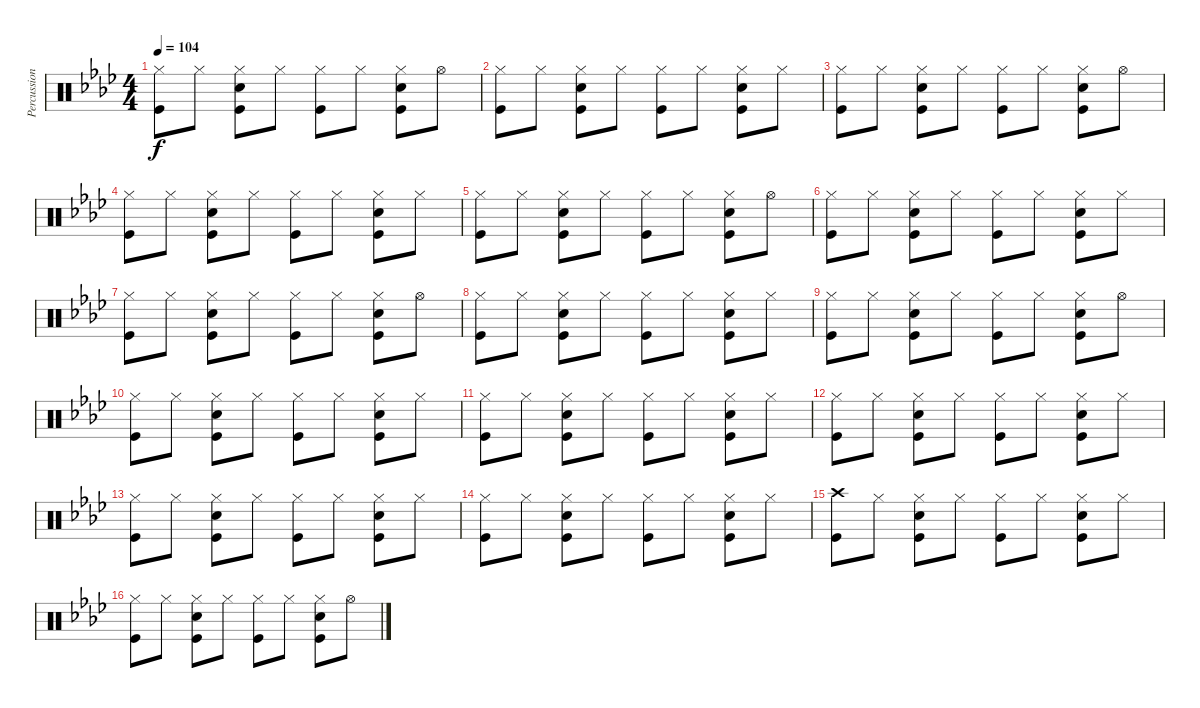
\track ("Percussion" "Percussion") {instrument percussion}
\staff {score}
\articulation defaults
\ts (4 4)
\tempo 104
\clef neutral
\ks ab
("Hi-Hat (closed)" "Kick (hit)").8{dy f} "Hi-Hat (closed)".8 ("Hi-Hat (closed)" "Snare (hit) 2" "Kick (hit)").8 "Hi-Hat (closed)".8 ("Hi-Hat (closed)" "Kick (hit)").8 "Hi-Hat (closed)".8 ("Hi-Hat (closed)" "Snare (hit) 2" "Kick (hit)").8 "Hi-Hat (open)".8 |
("Hi-Hat (closed)" "Kick (hit)").8 "Hi-Hat (closed)".8 ("Hi-Hat (closed)" "Snare (hit) 2" "Kick (hit)").8 "Hi-Hat (closed)".8 ("Hi-Hat (closed)" "Kick (hit)").8 "Hi-Hat (closed)".8 ("Hi-Hat (closed)" "Snare (hit) 2" "Kick (hit)").8 "Hi-Hat (closed)".8 |
("Hi-Hat (closed)" "Kick (hit)").8 "Hi-Hat (closed)".8 ("Hi-Hat (closed)" "Snare (hit) 2" "Kick (hit)").8 "Hi-Hat (closed)".8 ("Hi-Hat (closed)" "Kick (hit)").8 "Hi-Hat (closed)".8 ("Hi-Hat (closed)" "Snare (hit) 2" "Kick (hit)").8 "Hi-Hat (open)".8 |
("Hi-Hat (closed)" "Kick (hit)").8 "Hi-Hat (closed)".8 ("Hi-Hat (closed)" "Snare (hit) 2" "Kick (hit)").8 "Hi-Hat (closed)".8 ("Hi-Hat (closed)" "Kick (hit)").8 "Hi-Hat (closed)".8 ("Hi-Hat (closed)" "Snare (hit) 2" "Kick (hit)").8 "Hi-Hat (closed)".8 |
("Hi-Hat (closed)" "Kick (hit)").8 "Hi-Hat (closed)".8 ("Hi-Hat (closed)" "Snare (hit) 2" "Kick (hit)").8 "Hi-Hat (closed)".8 ("Hi-Hat (closed)" "Kick (hit)").8 "Hi-Hat (closed)".8 ("Hi-Hat (closed)" "Snare (hit) 2" "Kick (hit)").8 "Hi-Hat (open)".8 |
("Hi-Hat (closed)" "Kick (hit)").8 "Hi-Hat (closed)".8 ("Hi-Hat (closed)" "Snare (hit) 2" "Kick (hit)").8 "Hi-Hat (closed)".8 ("Hi-Hat (closed)" "Kick (hit)").8 "Hi-Hat (closed)".8 ("Hi-Hat (closed)" "Snare (hit) 2" "Kick (hit)").8 "Hi-Hat (closed)".8 |
("Hi-Hat (closed)" "Kick (hit)").8 "Hi-Hat (closed)".8 ("Hi-Hat (closed)" "Snare (hit) 2" "Kick (hit)").8 "Hi-Hat (closed)".8 ("Hi-Hat (closed)" "Kick (hit)").8 "Hi-Hat (closed)".8 ("Hi-Hat (closed)" "Snare (hit) 2" "Kick (hit)").8 "Hi-Hat (open)".8 |
("Hi-Hat (closed)" "Kick (hit)").8 "Hi-Hat (closed)".8 ("Hi-Hat (closed)" "Snare (hit) 2" "Kick (hit)").8 "Hi-Hat (closed)".8 ("Hi-Hat (closed)" "Kick (hit)").8 "Hi-Hat (closed)".8 ("Hi-Hat (closed)" "Snare (hit) 2" "Kick (hit)").8 "Hi-Hat (closed)".8 |
("Hi-Hat (closed)" "Kick (hit)").8 "Hi-Hat (closed)".8 ("Hi-Hat (closed)" "Snare (hit) 2" "Kick (hit)").8 "Hi-Hat (closed)".8 ("Hi-Hat (closed)" "Kick (hit)").8 "Hi-Hat (closed)".8 ("Hi-Hat (closed)" "Snare (hit) 2" "Kick (hit)").8 "Hi-Hat (open)".8 |
("Hi-Hat (closed)" "Kick (hit)").8 "Hi-Hat (closed)".8 ("Hi-Hat (closed)" "Snare (hit) 2" "Kick (hit)").8 "Hi-Hat (closed)".8 ("Hi-Hat (closed)" "Kick (hit)").8 "Hi-Hat (closed)".8 ("Hi-Hat (closed)" "Snare (hit) 2" "Kick (hit)").8 "Hi-Hat (closed)".8 |
("Hi-Hat (closed)" "Kick (hit)").8 "Hi-Hat (closed)".8 ("Hi-Hat (closed)" "Snare (hit) 2" "Kick (hit)").8 "Hi-Hat (closed)".8 ("Hi-Hat (closed)" "Kick (hit)").8 "Hi-Hat (closed)".8 ("Hi-Hat (closed)" "Snare (hit) 2" "Kick (hit)").8 "Hi-Hat (closed)".8 |
("Hi-Hat (closed)" "Kick (hit)").8 "Hi-Hat (closed)".8 ("Hi-Hat (closed)" "Snare (hit) 2" "Kick (hit)").8 "Hi-Hat (closed)".8 ("Hi-Hat (closed)" "Kick (hit)").8 "Hi-Hat (closed)".8 ("Hi-Hat (closed)" "Snare (hit) 2" "Kick (hit)").8 "Hi-Hat (closed)".8 |
("Hi-Hat (closed)" "Kick (hit)").8 "Hi-Hat (closed)".8 ("Hi-Hat (closed)" "Snare (hit) 2" "Kick (hit)").8 "Hi-Hat (closed)".8 ("Hi-Hat (closed)" "Kick (hit)").8 "Hi-Hat (closed)".8 ("Hi-Hat (closed)" "Snare (hit) 2" "Kick (hit)").8 "Hi-Hat (closed)".8 |
("Hi-Hat (closed)" "Kick (hit)").8 "Hi-Hat (closed)".8 ("Hi-Hat (closed)" "Snare (hit) 2" "Kick (hit)").8 "Hi-Hat (closed)".8 ("Hi-Hat (closed)" "Kick (hit)").8 "Hi-Hat (closed)".8 ("Hi-Hat (closed)" "Snare (hit) 2" "Kick (hit)").8 "Hi-Hat (closed)".8 |
("Crash high (hit)" "Kick (hit)").8 "Hi-Hat (closed)".8 ("Hi-Hat (closed)" "Snare (hit) 2" "Kick (hit)").8 "Hi-Hat (closed)".8 ("Hi-Hat (closed)" "Kick (hit)").8 "Hi-Hat (closed)".8 ("Hi-Hat (closed)" "Snare (hit) 2" "Kick (hit)").8 "Hi-Hat (closed)".8 |
("Hi-Hat (closed)" "Kick (hit)").8 "Hi-Hat (closed)".8 ("Hi-Hat (closed)" "Snare (hit) 2" "Kick (hit)").8 "Hi-Hat (closed)".8 ("Hi-Hat (closed)" "Kick (hit)").8 "Hi-Hat (closed)".8 ("Hi-Hat (closed)" "Snare (hit) 2" "Kick (hit)").8 "Hi-Hat (open)".8
